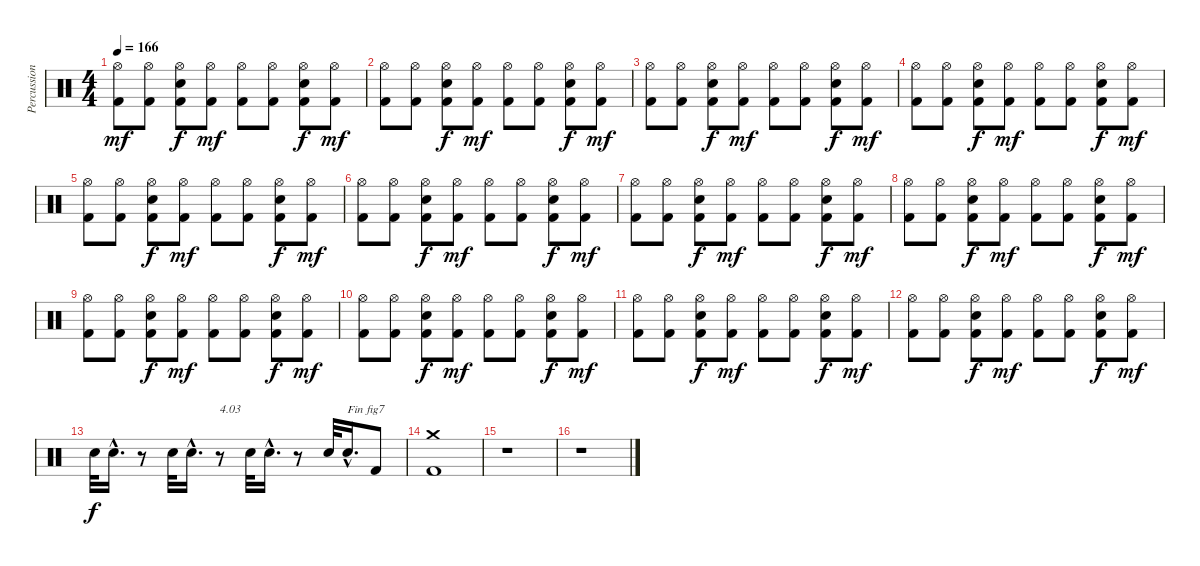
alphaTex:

\track ("Percussions" "Percussion") {instrument percussion}
\staff {score}
\articulation defaults
\ts (4 4)
\tempo 166
\clef neutral
\ks c
("Kick (hit) 2" "Hi-Hat (open)").8{dy mf} ("Kick (hit) 2" "Hi-Hat (open)").8 ("Kick (hit) 2" "Electric Snare (hit)" "Hi-Hat (open)").8{dy f} ("Kick (hit) 2" "Hi-Hat (open)").8{dy mf} ("Kick (hit) 2" "Hi-Hat (open)").8 ("Kick (hit) 2" "Hi-Hat (open)").8 ("Kick (hit) 2" "Electric Snare (hit)" "Hi-Hat (open)").8{dy f} ("Kick (hit) 2" "Hi-Hat (open)").8{dy mf} |
("Kick (hit) 2" "Hi-Hat (open)").8 ("Kick (hit) 2" "Hi-Hat (open)").8 ("Kick (hit) 2" "Electric Snare (hit)" "Hi-Hat (open)").8{dy f} ("Kick (hit) 2" "Hi-Hat (open)").8{dy mf} ("Kick (hit) 2" "Hi-Hat (open)").8 ("Kick (hit) 2" "Hi-Hat (open)").8 ("Kick (hit) 2" "Electric Snare (hit)" "Hi-Hat (open)").8{dy f} ("Kick (hit) 2" "Hi-Hat (open)").8{dy mf} |
("Kick (hit) 2" "Hi-Hat (open)").8 ("Kick (hit) 2" "Hi-Hat (open)").8 ("Kick (hit) 2" "Electric Snare (hit)" "Hi-Hat (open)").8{dy f} ("Kick (hit) 2" "Hi-Hat (open)").8{dy mf} ("Kick (hit) 2" "Hi-Hat (open)").8 ("Kick (hit) 2" "Hi-Hat (open)").8 ("Kick (hit) 2" "Electric Snare (hit)" "Hi-Hat (open)").8{dy f} ("Kick (hit) 2" "Hi-Hat (open)").8{dy mf} |
("Kick (hit) 2" "Hi-Hat (open)").8 ("Kick (hit) 2" "Hi-Hat (open)").8 ("Kick (hit) 2" "Electric Snare (hit)" "Hi-Hat (open)").8{dy f} ("Kick (hit) 2" "Hi-Hat (open)").8{dy mf} ("Kick (hit) 2" "Hi-Hat (open)").8 ("Kick (hit) 2" "Hi-Hat (open)").8 ("Kick (hit) 2" "Electric Snare (hit)" "Hi-Hat (open)").8{dy f} ("Kick (hit) 2" "Hi-Hat (open)").8{dy mf} |
("Kick (hit) 2" "Hi-Hat (open)").8 ("Kick (hit) 2" "Hi-Hat (open)").8 ("Kick (hit) 2" "Electric Snare (hit)" "Hi-Hat (open)").8{dy f} ("Kick (hit) 2" "Hi-Hat (open)").8{dy mf} ("Kick (hit) 2" "Hi-Hat (open)").8 ("Kick (hit) 2" "Hi-Hat (open)").8 ("Kick (hit) 2" "Electric Snare (hit)" "Hi-Hat (open)").8{dy f} ("Kick (hit) 2" "Hi-Hat (open)").8{dy mf} |
("Kick (hit) 2" "Hi-Hat (open)").8 ("Kick (hit) 2" "Hi-Hat (open)").8 ("Kick (hit) 2" "Electric Snare (hit)" "Hi-Hat (open)").8{dy f} ("Kick (hit) 2" "Hi-Hat (open)").8{dy mf} ("Kick (hit) 2" "Hi-Hat (open)").8 ("Kick (hit) 2" "Hi-Hat (open)").8 ("Kick (hit) 2" "Electric Snare (hit)" "Hi-Hat (open)").8{dy f} ("Kick (hit) 2" "Hi-Hat (open)").8{dy mf} |
("Kick (hit) 2" "Hi-Hat (open)").8 ("Kick (hit) 2" "Hi-Hat (open)").8 ("Kick (hit) 2" "Electric Snare (hit)" "Hi-Hat (open)").8{dy f} ("Kick (hit) 2" "Hi-Hat (open)").8{dy mf} ("Kick (hit) 2" "Hi-Hat (open)").8 ("Kick (hit) 2" "Hi-Hat (open)").8 ("Kick (hit) 2" "Electric Snare (hit)" "Hi-Hat (open)").8{dy f} ("Kick (hit) 2" "Hi-Hat (open)").8{dy mf} |
("Kick (hit) 2" "Hi-Hat (open)").8 ("Kick (hit) 2" "Hi-Hat (open)").8 ("Kick (hit) 2" "Electric Snare (hit)" "Hi-Hat (open)").8{dy f} ("Kick (hit) 2" "Hi-Hat (open)").8{dy mf} ("Kick (hit) 2" "Hi-Hat (open)").8 ("Kick (hit) 2" "Hi-Hat (open)").8 ("Kick (hit) 2" "Electric Snare (hit)" "Hi-Hat (open)").8{dy f} ("Kick (hit) 2" "Hi-Hat (open)").8{dy mf} |
("Kick (hit) 2" "Hi-Hat (open)").8 ("Kick (hit) 2" "Hi-Hat (open)").8 ("Kick (hit) 2" "Electric Snare (hit)" "Hi-Hat (open)").8{dy f} ("Kick (hit) 2" "Hi-Hat (open)").8{dy mf} ("Kick (hit) 2" "Hi-Hat (open)").8 ("Kick (hit) 2" "Hi-Hat (open)").8 ("Kick (hit) 2" "Electric Snare (hit)" "Hi-Hat (open)").8{dy f} ("Kick (hit) 2" "Hi-Hat (open)").8{dy mf} |
("Kick (hit) 2" "Hi-Hat (open)").8 ("Kick (hit) 2" "Hi-Hat (open)").8 ("Kick (hit) 2" "Electric Snare (hit)" "Hi-Hat (open)").8{dy f} ("Kick (hit) 2" "Hi-Hat (open)").8{dy mf} ("Kick (hit) 2" "Hi-Hat (open)").8 ("Kick (hit) 2" "Hi-Hat (open)").8 ("Kick (hit) 2" "Electric Snare (hit)" "Hi-Hat (open)").8{dy f} ("Kick (hit) 2" "Hi-Hat (open)").8{dy mf} |
("Kick (hit) 2" "Hi-Hat (open)").8 ("Kick (hit) 2" "Hi-Hat (open)").8 ("Kick (hit) 2" "Electric Snare (hit)" "Hi-Hat (open)").8{dy f} ("Kick (hit) 2" "Hi-Hat (open)").8{dy mf} ("Kick (hit) 2" "Hi-Hat (open)").8 ("Kick (hit) 2" "Hi-Hat (open)").8 ("Kick (hit) 2" "Electric Snare (hit)" "Hi-Hat (open)").8{dy f} ("Kick (hit) 2" "Hi-Hat (open)").8{dy mf} |
("Kick (hit) 2" "Hi-Hat (open)").8 ("Kick (hit) 2" "Hi-Hat (open)").8 ("Kick (hit) 2" "Electric Snare (hit)" "Hi-Hat (open)").8{dy f} ("Kick (hit) 2" "Hi-Hat (open)").8{dy mf} ("Kick (hit) 2" "Hi-Hat (open)").8 ("Kick (hit) 2" "Hi-Hat (open)").8 ("Kick (hit) 2" "Electric Snare (hit)" "Hi-Hat (open)").8{dy f} ("Kick (hit) 2" "Hi-Hat (open)").8{dy mf} |
"Electric Snare (hit)".32{dy f} "Electric Snare (hit)"{hac}.16{d} r.8 "Electric Snare (hit)".32 "Electric Snare (hit)"{hac}.16{d} r.8{txt "4.03"} "Electric Snare (hit)".32 "Electric Snare (hit)"{hac}.16{d} r.8 "Electric Snare (hit)".32 "Electric Snare (hit)"{hac}.16{d txt "Fin fig7"} "Kick (hit) 2".8 |
("Kick (hit) 2" "Crash medium (hit)").1 |
r.1 |
r.1
